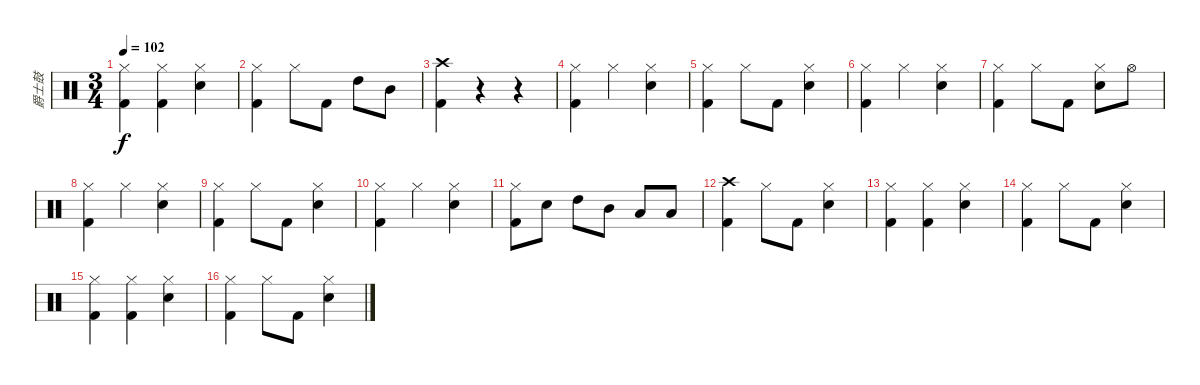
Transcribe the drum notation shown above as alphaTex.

\track ("爵士鼓" "爵士鼓") {instrument percussion}
\staff {score}
\articulation defaults
\ts (3 4)
\tempo 102
\clef neutral
\ks c
("Hi-Hat (closed)" "Kick (hit) 2").4{dy f} ("Hi-Hat (closed)" "Kick (hit) 2").4 ("Hi-Hat (closed)" "Electric Snare (hit)").4 |
("Hi-Hat (closed)" "Kick (hit) 2").4 "Hi-Hat (closed)".8 "Kick (hit) 2".8 "High Tom (hit)".8 "Mid Tom (hit)".8 |
("Crash high (hit)" "Kick (hit) 2").4 r.4 r.4 |
("Hi-Hat (closed)" "Kick (hit) 2").4 "Hi-Hat (closed)".4 ("Hi-Hat (closed)" "Electric Snare (hit)").4 |
("Hi-Hat (closed)" "Kick (hit) 2").4 "Hi-Hat (closed)".8 "Kick (hit) 2".8 ("Hi-Hat (closed)" "Electric Snare (hit)").4 |
("Hi-Hat (closed)" "Kick (hit) 2").4 "Hi-Hat (closed)".4 ("Hi-Hat (closed)" "Electric Snare (hit)").4 |
("Hi-Hat (closed)" "Kick (hit) 2").4 "Hi-Hat (closed)".8 "Kick (hit) 2".8 ("Hi-Hat (closed)" "Electric Snare (hit)").8 "Hi-Hat (open)".8 |
("Hi-Hat (closed)" "Kick (hit) 2").4 "Hi-Hat (closed)".4 ("Hi-Hat (closed)" "Electric Snare (hit)").4 |
("Hi-Hat (closed)" "Kick (hit) 2").4 "Hi-Hat (closed)".8 "Kick (hit) 2".8 ("Hi-Hat (closed)" "Electric Snare (hit)").4 |
("Hi-Hat (closed)" "Kick (hit) 2").4 "Hi-Hat (closed)".4 ("Hi-Hat (closed)" "Electric Snare (hit)").4 |
("Hi-Hat (closed)" "Kick (hit) 2").8 "Electric Snare (hit)".8 "High Tom (hit)".8 "Mid Tom (hit)".8 "Low Tom (hit)".8 "Low Tom (hit)".8 |
("Crash high (hit)" "Kick (hit) 2").4 "Hi-Hat (closed)".8 "Kick (hit) 2".8 ("Hi-Hat (closed)" "Electric Snare (hit)").4 |
("Hi-Hat (closed)" "Kick (hit) 2").4 ("Hi-Hat (closed)" "Kick (hit) 2").4 ("Hi-Hat (closed)" "Electric Snare (hit)").4 |
("Hi-Hat (closed)" "Kick (hit) 2").4 "Hi-Hat (closed)".8 "Kick (hit) 2".8 ("Hi-Hat (closed)" "Electric Snare (hit)").4 |
("Hi-Hat (closed)" "Kick (hit) 2").4 ("Hi-Hat (closed)" "Kick (hit) 2").4 ("Hi-Hat (closed)" "Electric Snare (hit)").4 |
("Hi-Hat (closed)" "Kick (hit) 2").4 "Hi-Hat (closed)".8 "Kick (hit) 2".8 ("Hi-Hat (closed)" "Electric Snare (hit)").4
